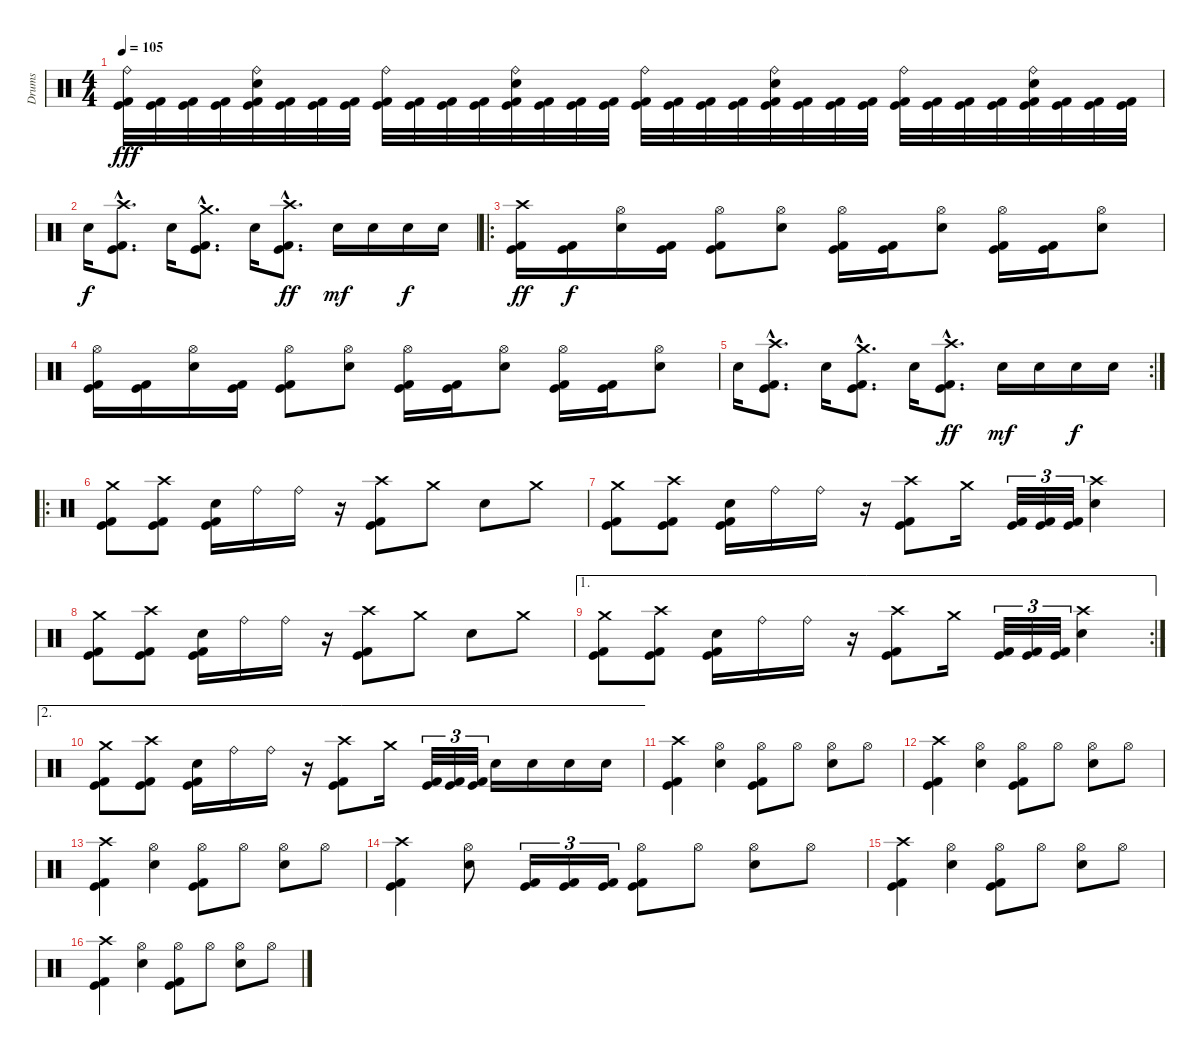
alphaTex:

\track ("Drums" "Drums") {instrument percussion}
\staff {score}
\articulation defaults
\ts (4 4)
\tempo 105
\clef neutral
\ks c
("Ride (bell)" "Kick (hit) 2" "Kick (hit)").32{dy fff} ("Kick (hit) 2" "Kick (hit)").32 ("Kick (hit) 2" "Kick (hit)").32 ("Kick (hit) 2" "Kick (hit)").32 ("Ride (bell)" "Snare (hit) 2" "Kick (hit) 2" "Kick (hit)").32 ("Kick (hit) 2" "Kick (hit)").32 ("Kick (hit) 2" "Kick (hit)").32 ("Kick (hit) 2" "Kick (hit)").32 ("Ride (bell)" "Kick (hit) 2" "Kick (hit)").32 ("Kick (hit) 2" "Kick (hit)").32 ("Kick (hit) 2" "Kick (hit)").32 ("Kick (hit) 2" "Kick (hit)").32 ("Ride (bell)" "Snare (hit) 2" "Kick (hit) 2" "Kick (hit)").32 ("Kick (hit) 2" "Kick (hit)").32 ("Kick (hit) 2" "Kick (hit)").32 ("Kick (hit) 2" "Kick (hit)").32 ("Ride (bell)" "Kick (hit) 2" "Kick (hit)").32 ("Kick (hit) 2" "Kick (hit)").32 ("Kick (hit) 2" "Kick (hit)").32 ("Kick (hit) 2" "Kick (hit)").32 ("Ride (bell)" "Snare (hit) 2" "Kick (hit) 2" "Kick (hit)").32 ("Kick (hit) 2" "Kick (hit)").32 ("Kick (hit) 2" "Kick (hit)").32 ("Kick (hit) 2" "Kick (hit)").32 ("Ride (bell)" "Kick (hit) 2" "Kick (hit)").32 ("Kick (hit) 2" "Kick (hit)").32 ("Kick (hit) 2" "Kick (hit)").32 ("Kick (hit) 2" "Kick (hit)").32 ("Ride (bell)" "Snare (hit) 2" "Kick (hit) 2" "Kick (hit)").32 ("Kick (hit) 2" "Kick (hit)").32 ("Kick (hit) 2" "Kick (hit)").32 ("Kick (hit) 2" "Kick (hit)").32 |
"Snare (hit) 2".16{dy f} ("Crash high (hit)"{hac} "Kick (hit) 2"{hac} "Kick (hit)"{hac}).8{d} "Snare (hit) 2".16 ("Crash medium (hit)"{hac} "Kick (hit) 2"{hac} "Kick (hit)"{hac}).8{d} "Snare (hit) 2".16 ("Crash high (hit)"{hac} "Kick (hit) 2"{hac} "Kick (hit)"{hac}).8{d dy ff} "Snare (hit) 2".16{dy mf} "Snare (hit) 2".16 "Snare (hit) 2".16{dy f} "Snare (hit) 2".16 |
\ro
("Crash high (hit)" "Kick (hit) 2" "Kick (hit)").16{dy ff} ("Kick (hit) 2" "Kick (hit)").16{dy f} ("Hi-Hat (open)" "Snare (hit) 2").16 ("Kick (hit) 2" "Kick (hit)").16 ("Hi-Hat (open)" "Kick (hit) 2" "Kick (hit)").8 ("Hi-Hat (open)" "Snare (hit) 2").8 ("Hi-Hat (open)" "Kick (hit) 2" "Kick (hit)").16 ("Kick (hit) 2" "Kick (hit)").16 ("Hi-Hat (open)" "Snare (hit) 2").8 ("Hi-Hat (open)" "Kick (hit) 2" "Kick (hit)").16 ("Kick (hit) 2" "Kick (hit)").16 ("Hi-Hat (open)" "Snare (hit) 2").8 |
("Hi-Hat (open)" "Kick (hit) 2" "Kick (hit)").16 ("Kick (hit) 2" "Kick (hit)").16 ("Hi-Hat (open)" "Snare (hit) 2").16 ("Kick (hit) 2" "Kick (hit)").16 ("Hi-Hat (open)" "Kick (hit) 2" "Kick (hit)").8 ("Hi-Hat (open)" "Snare (hit) 2").8 ("Hi-Hat (open)" "Kick (hit) 2" "Kick (hit)").16 ("Kick (hit) 2" "Kick (hit)").16 ("Hi-Hat (open)" "Snare (hit) 2").8 ("Hi-Hat (open)" "Kick (hit) 2" "Kick (hit)").16 ("Kick (hit) 2" "Kick (hit)").16 ("Hi-Hat (open)" "Snare (hit) 2").8 |
\rc 2 "Snare (hit) 2".16
("Crash high (hit)"{hac} "Kick (hit) 2"{hac} "Kick (hit)"{hac}).8{d} "Snare (hit) 2".16 ("Crash medium (hit)"{hac} "Kick (hit) 2"{hac} "Kick (hit)"{hac}).8{d} "Snare (hit) 2".16 ("Crash high (hit)"{hac} "Kick (hit) 2"{hac} "Kick (hit)"{hac}).8{d dy ff} "Snare (hit) 2".16{dy mf} "Snare (hit) 2".16 "Snare (hit) 2".16{dy f} "Snare (hit) 2".16 |
\ro
("Crash medium (hit)" "Kick (hit) 2" "Kick (hit)").8 ("Crash high (hit)" "Kick (hit) 2" "Kick (hit)").8 ("Snare (hit) 2" "Kick (hit) 2" "Kick (hit)").16 "Ride (bell)".16 "Ride (bell)".16 r.16 ("Crash high (hit)" "Kick (hit) 2" "Kick (hit)").8 "Crash medium (hit)".8 "Snare (hit) 2".8 "Crash medium (hit)".8 |
("Crash medium (hit)" "Kick (hit) 2" "Kick (hit)").8 ("Crash high (hit)" "Kick (hit) 2" "Kick (hit)").8 ("Snare (hit) 2" "Kick (hit) 2" "Kick (hit)").16 "Ride (bell)".16 "Ride (bell)".16 r.16 ("Crash high (hit)" "Kick (hit) 2" "Kick (hit)").8 "Crash medium (hit)".16 ("Kick (hit) 2" "Kick (hit)").32{tu (3 2)} ("Kick (hit) 2" "Kick (hit)").32{tu (3 2)} ("Kick (hit) 2" "Kick (hit)").32{tu (3 2)} ("Crash high (hit)" "Snare (hit) 2").4 |
("Crash medium (hit)" "Kick (hit) 2" "Kick (hit)").8 ("Crash high (hit)" "Kick (hit) 2" "Kick (hit)").8 ("Snare (hit) 2" "Kick (hit) 2" "Kick (hit)").16 "Ride (bell)".16 "Ride (bell)".16 r.16 ("Crash high (hit)" "Kick (hit) 2" "Kick (hit)").8 "Crash medium (hit)".8 "Snare (hit) 2".8 "Crash medium (hit)".8 |
\ae 1
\rc 2
("Crash medium (hit)" "Kick (hit) 2" "Kick (hit)").8 ("Crash high (hit)" "Kick (hit) 2" "Kick (hit)").8 ("Snare (hit) 2" "Kick (hit) 2" "Kick (hit)").16 "Ride (bell)".16 "Ride (bell)".16 r.16 ("Crash high (hit)" "Kick (hit) 2" "Kick (hit)").8 "Crash medium (hit)".16 ("Kick (hit) 2" "Kick (hit)").32{tu (3 2)} ("Kick (hit) 2" "Kick (hit)").32{tu (3 2)} ("Kick (hit) 2" "Kick (hit)").32{tu (3 2)} ("Crash high (hit)" "Snare (hit) 2").4 |
\ae 2
("Crash medium (hit)" "Kick (hit) 2" "Kick (hit)").8 ("Crash high (hit)" "Kick (hit) 2" "Kick (hit)").8 ("Snare (hit) 2" "Kick (hit) 2" "Kick (hit)").16 "Ride (bell)".16 "Ride (bell)".16 r.16 ("Crash high (hit)" "Kick (hit) 2" "Kick (hit)").8 "Crash medium (hit)".16 ("Kick (hit) 2" "Kick (hit)").32{tu (3 2)} ("Kick (hit) 2" "Kick (hit)").32{tu (3 2)} ("Kick (hit) 2" "Kick (hit)").32{tu (3 2)} "Snare (hit) 2".16 "Snare (hit) 2".16 "Snare (hit) 2".16 "Snare (hit) 2".16 |
("Crash high (hit)" "Kick (hit) 2" "Kick (hit)").4 ("Hi-Hat (open)" "Snare (hit) 2").4 ("Hi-Hat (open)" "Kick (hit) 2" "Kick (hit)").8 "Hi-Hat (open)".8 ("Hi-Hat (open)" "Snare (hit) 2").8 "Hi-Hat (open)".8 |
("Crash high (hit)" "Kick (hit) 2" "Kick (hit)").4 ("Hi-Hat (open)" "Snare (hit) 2").4 ("Hi-Hat (open)" "Kick (hit) 2" "Kick (hit)").8 "Hi-Hat (open)".8 ("Hi-Hat (open)" "Snare (hit) 2").8 "Hi-Hat (open)".8 |
("Crash high (hit)" "Kick (hit) 2" "Kick (hit)").4 ("Hi-Hat (open)" "Snare (hit) 2").4 ("Hi-Hat (open)" "Kick (hit) 2" "Kick (hit)").8 "Hi-Hat (open)".8 ("Hi-Hat (open)" "Snare (hit) 2").8 "Hi-Hat (open)".8 |
("Crash high (hit)" "Kick (hit) 2" "Kick (hit)").4 ("Hi-Hat (open)" "Snare (hit) 2").8 ("Kick (hit) 2" "Kick (hit)").16{tu (3 2)} ("Kick (hit) 2" "Kick (hit)").16{tu (3 2)} ("Kick (hit) 2" "Kick (hit)").16{tu (3 2)} ("Hi-Hat (open)" "Kick (hit) 2" "Kick (hit)").8 "Hi-Hat (open)".8 ("Hi-Hat (open)" "Snare (hit) 2").8 "Hi-Hat (open)".8 |
("Crash high (hit)" "Kick (hit) 2" "Kick (hit)").4 ("Hi-Hat (open)" "Snare (hit) 2").4 ("Hi-Hat (open)" "Kick (hit) 2" "Kick (hit)").8 "Hi-Hat (open)".8 ("Hi-Hat (open)" "Snare (hit) 2").8 "Hi-Hat (open)".8 |
("Crash high (hit)" "Kick (hit) 2" "Kick (hit)").4 ("Hi-Hat (open)" "Snare (hit) 2").4 ("Hi-Hat (open)" "Kick (hit) 2" "Kick (hit)").8 "Hi-Hat (open)".8 ("Hi-Hat (open)" "Snare (hit) 2").8 "Hi-Hat (open)".8
